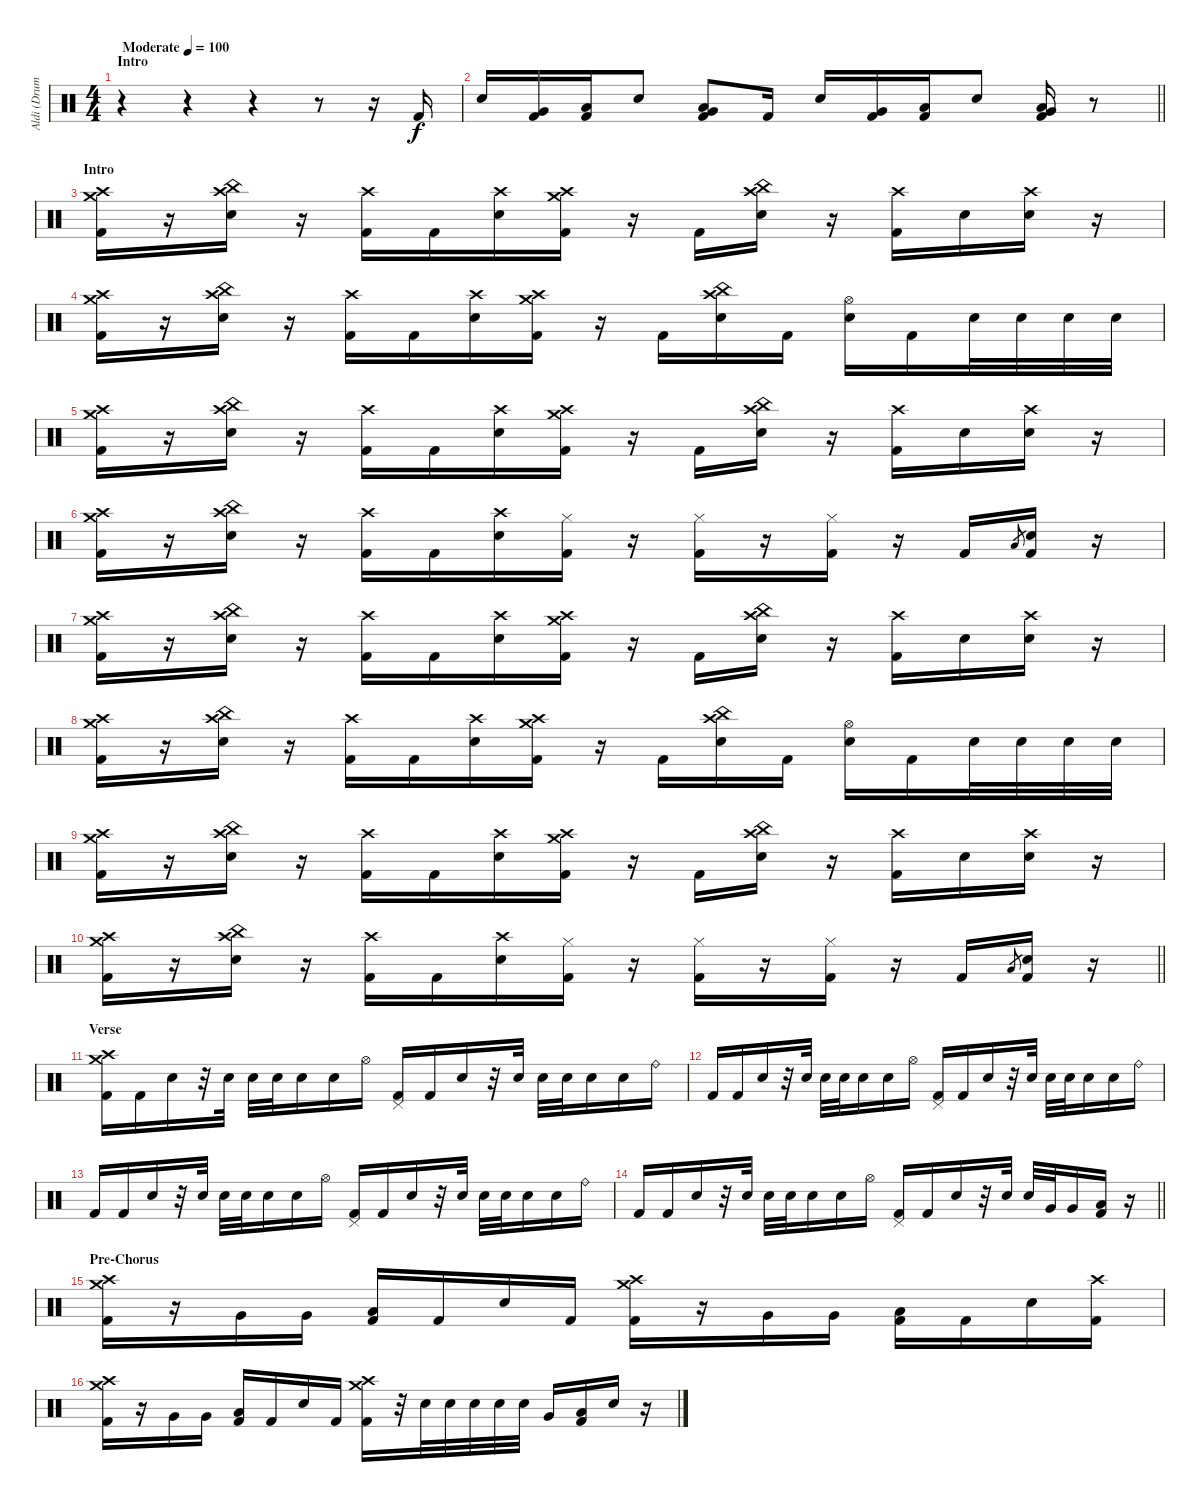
\track ("Aldi (Drum)" "Aldi (Drum") {instrument percussion}
\staff {score}
\articulation defaults
\ts (4 4)
\section ("" "Intro")
\tempo (100 "Moderate")
\clef neutral
\ks c
r.4{dy f} r.4 r.4 r.8 r.16 "Kick (hit) 2".16 |
\barLineRight lightlight "Electric Snare (hit)".16
("Very Low Tom (hit)" "Kick (hit) 2").16 ("Low Floor Tom (hit)" "Kick (hit) 2").16 "Electric Snare (hit)".8 ("Very Low Tom (hit)" "Low Floor Tom (hit)" "Kick (hit) 2").8 "Kick (hit) 2".16 "Electric Snare (hit)".16 ("Very Low Tom (hit)" "Kick (hit) 2").16 ("Low Floor Tom (hit)" "Kick (hit) 2").16 "Electric Snare (hit)".8 ("Very Low Tom (hit)" "Low Floor Tom (hit)" "Kick (hit) 2").16 r.8 |
\section ("" "Intro")
("Crash medium (hit)" "Crash high (hit)" "Kick (hit) 2").16 r.16 ("China (hit)" "Crash high (hit)" "Electric Snare (hit)").16 r.16 ("Crash high (hit)" "Kick (hit) 2").16 "Kick (hit) 2".16 ("Crash high (hit)" "Electric Snare (hit)").16 ("Crash medium (hit)" "Crash high (hit)" "Kick (hit) 2").16 r.16 "Kick (hit) 2".16 ("China (hit)" "Crash high (hit)" "Electric Snare (hit)").16 r.16 ("Crash high (hit)" "Kick (hit) 2").16 "Electric Snare (hit)".16 ("Crash high (hit)" "Electric Snare (hit)").16 r.16 |
("Crash medium (hit)" "Crash high (hit)" "Kick (hit) 2").16 r.16 ("China (hit)" "Crash high (hit)" "Electric Snare (hit)").16 r.16 ("Crash high (hit)" "Kick (hit) 2").16 "Kick (hit) 2".16 ("Crash high (hit)" "Electric Snare (hit)").16 ("Crash medium (hit)" "Crash high (hit)" "Kick (hit) 2").16 r.16 "Kick (hit) 2".16 ("China (hit)" "Crash high (hit)" "Electric Snare (hit)").16 "Kick (hit) 2".16 ("Hi-Hat (open)" "Electric Snare (hit)").16 "Kick (hit) 2".16 "Electric Snare (hit)".32 "Electric Snare (hit)".32 "Electric Snare (hit)".32 "Electric Snare (hit)".32 |
("Crash medium (hit)" "Crash high (hit)" "Kick (hit) 2").16 r.16 ("China (hit)" "Crash high (hit)" "Electric Snare (hit)").16 r.16 ("Crash high (hit)" "Kick (hit) 2").16 "Kick (hit) 2".16 ("Crash high (hit)" "Electric Snare (hit)").16 ("Crash medium (hit)" "Crash high (hit)" "Kick (hit) 2").16 r.16 "Kick (hit) 2".16 ("China (hit)" "Crash high (hit)" "Electric Snare (hit)").16 r.16 ("Crash high (hit)" "Kick (hit) 2").16 "Electric Snare (hit)".16 ("Crash high (hit)" "Electric Snare (hit)").16 r.16 |
("Crash medium (hit)" "Crash high (hit)" "Kick (hit) 2").16 r.16 ("China (hit)" "Crash high (hit)" "Electric Snare (hit)").16 r.16 ("Crash high (hit)" "Kick (hit) 2").16 "Kick (hit) 2".16 ("Crash high (hit)" "Electric Snare (hit)").16 ("Hi-Hat (closed)" "Kick (hit) 2").16 r.16 ("Hi-Hat (closed)" "Kick (hit) 2").16 r.16 ("Hi-Hat (closed)" "Kick (hit) 2").16 r.16 "Kick (hit) 2".16 "Low Floor Tom (hit)".8{gr} ("Electric Snare (hit)" "Kick (hit) 2").16 r.16 |
("Crash medium (hit)" "Crash high (hit)" "Kick (hit) 2").16 r.16 ("China (hit)" "Crash high (hit)" "Electric Snare (hit)").16 r.16 ("Crash high (hit)" "Kick (hit) 2").16 "Kick (hit) 2".16 ("Crash high (hit)" "Electric Snare (hit)").16 ("Crash medium (hit)" "Crash high (hit)" "Kick (hit) 2").16 r.16 "Kick (hit) 2".16 ("China (hit)" "Crash high (hit)" "Electric Snare (hit)").16 r.16 ("Crash high (hit)" "Kick (hit) 2").16 "Electric Snare (hit)".16 ("Crash high (hit)" "Electric Snare (hit)").16 r.16 |
("Crash medium (hit)" "Crash high (hit)" "Kick (hit) 2").16 r.16 ("China (hit)" "Crash high (hit)" "Electric Snare (hit)").16 r.16 ("Crash high (hit)" "Kick (hit) 2").16 "Kick (hit) 2".16 ("Crash high (hit)" "Electric Snare (hit)").16 ("Crash medium (hit)" "Crash high (hit)" "Kick (hit) 2").16 r.16 "Kick (hit) 2".16 ("China (hit)" "Crash high (hit)" "Electric Snare (hit)").16 "Kick (hit) 2".16 ("Hi-Hat (open)" "Electric Snare (hit)").16 "Kick (hit) 2".16 "Electric Snare (hit)".32 "Electric Snare (hit)".32 "Electric Snare (hit)".32 "Electric Snare (hit)".32 |
("Crash medium (hit)" "Crash high (hit)" "Kick (hit) 2").16 r.16 ("China (hit)" "Crash high (hit)" "Electric Snare (hit)").16 r.16 ("Crash high (hit)" "Kick (hit) 2").16 "Kick (hit) 2".16 ("Crash high (hit)" "Electric Snare (hit)").16 ("Crash medium (hit)" "Crash high (hit)" "Kick (hit) 2").16 r.16 "Kick (hit) 2".16 ("China (hit)" "Crash high (hit)" "Electric Snare (hit)").16 r.16 ("Crash high (hit)" "Kick (hit) 2").16 "Electric Snare (hit)".16 ("Crash high (hit)" "Electric Snare (hit)").16 r.16 |
\barLineRight lightlight
("Crash medium (hit)" "Crash high (hit)" "Kick (hit) 2").16 r.16 ("China (hit)" "Crash high (hit)" "Electric Snare (hit)").16 r.16 ("Crash high (hit)" "Kick (hit) 2").16 "Kick (hit) 2".16 ("Crash high (hit)" "Electric Snare (hit)").16 ("Hi-Hat (closed)" "Kick (hit) 2").16 r.16 ("Hi-Hat (closed)" "Kick (hit) 2").16 r.16 ("Hi-Hat (closed)" "Kick (hit) 2").16 r.16 "Kick (hit) 2".16 "Low Floor Tom (hit)".8{gr} ("Electric Snare (hit)" "Kick (hit) 2").16 r.16 |
\section ("" "Verse")
("Crash medium (hit)" "Crash high (hit)" "Kick (hit) 2").16 "Kick (hit) 2".16 "Electric Snare (hit)".16 r.32 "Electric Snare (hit)".32 "Electric Snare (hit)".32 "Electric Snare (hit)".32 "Electric Snare (hit)".16 "Electric Snare (hit)".16 "Hi-Hat (open)".16 ("Pedal Hi-Hat (hit)" "Kick (hit) 2").16 "Kick (hit) 2".16 "Electric Snare (hit)".16 r.32 "Electric Snare (hit)".32 "Electric Snare (hit)".32 "Electric Snare (hit)".32 "Electric Snare (hit)".16 "Electric Snare (hit)".16 "Ride (bell)".16 |
"Kick (hit) 2".16 "Kick (hit) 2".16 "Electric Snare (hit)".16 r.32 "Electric Snare (hit)".32 "Electric Snare (hit)".32 "Electric Snare (hit)".32 "Electric Snare (hit)".16 "Electric Snare (hit)".16 "Hi-Hat (open)".16 ("Pedal Hi-Hat (hit)" "Kick (hit) 2").16 "Kick (hit) 2".16 "Electric Snare (hit)".16 r.32 "Electric Snare (hit)".32 "Electric Snare (hit)".32 "Electric Snare (hit)".32 "Electric Snare (hit)".16 "Electric Snare (hit)".16 "Ride (bell)".16 |
"Kick (hit) 2".16 "Kick (hit) 2".16 "Electric Snare (hit)".16 r.32 "Electric Snare (hit)".32 "Electric Snare (hit)".32 "Electric Snare (hit)".32 "Electric Snare (hit)".16 "Electric Snare (hit)".16 "Hi-Hat (open)".16 ("Pedal Hi-Hat (hit)" "Kick (hit) 2").16 "Kick (hit) 2".16 "Electric Snare (hit)".16 r.32 "Electric Snare (hit)".32 "Electric Snare (hit)".32 "Electric Snare (hit)".32 "Electric Snare (hit)".16 "Electric Snare (hit)".16 "Ride (bell)".16 |
\barLineRight lightlight "Kick (hit) 2".16 "Kick (hit) 2".16 "Electric Snare (hit)".16
r.32 "Electric Snare (hit)".32 "Electric Snare (hit)".32 "Electric Snare (hit)".32 "Electric Snare (hit)".16 "Electric Snare (hit)".16 "Hi-Hat (open)".16 ("Pedal Hi-Hat (hit)" "Kick (hit) 2").16 "Kick (hit) 2".16 "Electric Snare (hit)".16 r.32 "Electric Snare (hit)".32 "Electric Snare (hit)".32 "Very Low Tom (hit)".32 "Very Low Tom (hit)".16 ("Low Floor Tom (hit)" "Kick (hit) 2").16 r.16 |
\section ("" "Pre-Chorus")
("Crash high (hit)" "Crash medium (hit)" "Kick (hit) 2").16 r.16 "Very Low Tom (hit)".16 "Very Low Tom (hit)".16 ("Low Floor Tom (hit)" "Kick (hit) 2").16 "Kick (hit) 2".16 "Electric Snare (hit)".16 "Kick (hit) 2".16 ("Crash high (hit)" "Crash medium (hit)" "Kick (hit) 2").16 r.16 "Very Low Tom (hit)".16 "Very Low Tom (hit)".16 ("Low Floor Tom (hit)" "Kick (hit) 2").16 "Kick (hit) 2".16 "Electric Snare (hit)".16 ("Crash high (hit)" "Kick (hit) 2").16 |
("Crash high (hit)" "Crash medium (hit)" "Kick (hit) 2").16 r.16 "Very Low Tom (hit)".16 "Very Low Tom (hit)".16 ("Low Floor Tom (hit)" "Kick (hit) 2").16 "Kick (hit) 2".16 "Electric Snare (hit)".16 "Kick (hit) 2".16 ("Crash high (hit)" "Crash medium (hit)" "Kick (hit) 2").16 r.32 "Electric Snare (hit)".32 "Electric Snare (hit)".32 "Electric Snare (hit)".32 "Electric Snare (hit)".32 "Electric Snare (hit)".32 "Very Low Tom (hit)".16 ("Low Floor Tom (hit)" "Kick (hit) 2").16 "Electric Snare (hit)".16 r.16
